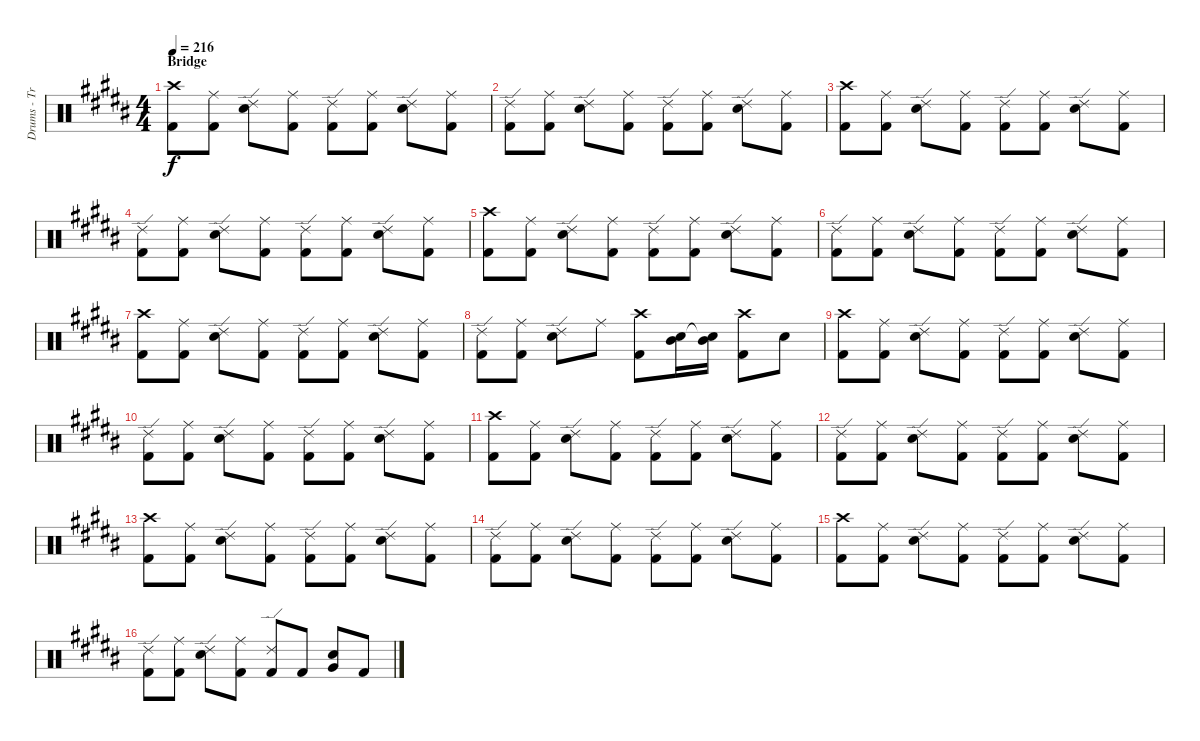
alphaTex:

\track ("Drums - Travis Barker" "Drums - Tr") {instrument percussion}
\staff {score}
\articulation defaults
\ts (4 4)
\section ("" "Bridge")
\tempo 216
\clef neutral
\ks b
("Kick (hit) 2" "Crash high (hit)").8{dy f} ("Kick (hit) 2" "Ride (middle)").8 ("Snare (hit) 2" "Ride (edge) 2").8 ("Kick (hit) 2" "Ride (middle)").8 ("Kick (hit) 2" "Ride (edge) 2").8 ("Kick (hit) 2" "Ride (middle)").8 ("Snare (hit) 2" "Ride (edge) 2").8 ("Kick (hit) 2" "Ride (middle)").8 |
("Kick (hit) 2" "Ride (edge) 2").8 ("Kick (hit) 2" "Ride (middle)").8 ("Snare (hit) 2" "Ride (edge) 2").8 ("Kick (hit) 2" "Ride (middle)").8 ("Kick (hit) 2" "Ride (edge) 2").8 ("Kick (hit) 2" "Ride (middle)").8 ("Snare (hit) 2" "Ride (edge) 2").8 ("Kick (hit) 2" "Ride (middle)").8 |
("Kick (hit) 2" "Crash high (hit)").8 ("Kick (hit) 2" "Ride (middle)").8 ("Snare (hit) 2" "Ride (edge) 2").8 ("Kick (hit) 2" "Ride (middle)").8 ("Kick (hit) 2" "Ride (edge) 2").8 ("Kick (hit) 2" "Ride (middle)").8 ("Snare (hit) 2" "Ride (edge) 2").8 ("Kick (hit) 2" "Ride (middle)").8 |
("Kick (hit) 2" "Ride (edge) 2").8 ("Kick (hit) 2" "Ride (middle)").8 ("Snare (hit) 2" "Ride (edge) 2").8 ("Kick (hit) 2" "Ride (middle)").8 ("Kick (hit) 2" "Ride (edge) 2").8 ("Kick (hit) 2" "Ride (middle)").8 ("Snare (hit) 2" "Ride (edge) 2").8 ("Kick (hit) 2" "Ride (middle)").8 |
("Kick (hit) 2" "Crash high (hit)").8 ("Kick (hit) 2" "Ride (middle)").8 ("Snare (hit) 2" "Ride (edge) 2").8 ("Kick (hit) 2" "Ride (middle)").8 ("Kick (hit) 2" "Ride (edge) 2").8 ("Kick (hit) 2" "Ride (middle)").8 ("Snare (hit) 2" "Ride (edge) 2").8 ("Kick (hit) 2" "Ride (middle)").8 |
("Kick (hit) 2" "Ride (edge) 2").8 ("Kick (hit) 2" "Ride (middle)").8 ("Snare (hit) 2" "Ride (edge) 2").8 ("Kick (hit) 2" "Ride (middle)").8 ("Kick (hit) 2" "Ride (edge) 2").8 ("Kick (hit) 2" "Ride (middle)").8 ("Snare (hit) 2" "Ride (edge) 2").8 ("Kick (hit) 2" "Ride (middle)").8 |
("Kick (hit) 2" "Crash high (hit)").8 ("Kick (hit) 2" "Ride (middle)").8 ("Snare (hit) 2" "Ride (edge) 2").8 ("Kick (hit) 2" "Ride (middle)").8 ("Kick (hit) 2" "Ride (edge) 2").8 ("Kick (hit) 2" "Ride (middle)").8 ("Snare (hit) 2" "Ride (edge) 2").8 ("Kick (hit) 2" "Ride (middle)").8 |
("Kick (hit) 2" "Ride (edge) 2").8 ("Kick (hit) 2" "Ride (middle)").8 ("Snare (hit) 2" "Ride (edge) 2").8 "Ride (middle)".8 ("Kick (hit) 2" "Crash high (hit)").8 ("Snare (hit) 2" "Mid Tom (hit)").16 ("Snare (hit) 2"{t} "Mid Tom (hit)").16 ("Kick (hit) 2" "Crash high (hit)").8 "Snare (hit) 2".8 |
("Kick (hit) 2" "Crash high (hit)").8 ("Kick (hit) 2" "Ride (middle)").8 ("Snare (hit) 2" "Ride (edge) 2").8 ("Kick (hit) 2" "Ride (middle)").8 ("Kick (hit) 2" "Ride (edge) 2").8 ("Kick (hit) 2" "Ride (middle)").8 ("Snare (hit) 2" "Ride (edge) 2").8 ("Kick (hit) 2" "Ride (middle)").8 |
("Kick (hit) 2" "Ride (edge) 2").8 ("Kick (hit) 2" "Ride (middle)").8 ("Snare (hit) 2" "Ride (edge) 2").8 ("Kick (hit) 2" "Ride (middle)").8 ("Kick (hit) 2" "Ride (edge) 2").8 ("Kick (hit) 2" "Ride (middle)").8 ("Snare (hit) 2" "Ride (edge) 2").8 ("Kick (hit) 2" "Ride (middle)").8 |
("Kick (hit) 2" "Crash high (hit)").8 ("Kick (hit) 2" "Ride (middle)").8 ("Snare (hit) 2" "Ride (edge) 2").8 ("Kick (hit) 2" "Ride (middle)").8 ("Kick (hit) 2" "Ride (edge) 2").8 ("Kick (hit) 2" "Ride (middle)").8 ("Snare (hit) 2" "Ride (edge) 2").8 ("Kick (hit) 2" "Ride (middle)").8 |
("Kick (hit) 2" "Ride (edge) 2").8 ("Kick (hit) 2" "Ride (middle)").8 ("Snare (hit) 2" "Ride (edge) 2").8 ("Kick (hit) 2" "Ride (middle)").8 ("Kick (hit) 2" "Ride (edge) 2").8 ("Kick (hit) 2" "Ride (middle)").8 ("Snare (hit) 2" "Ride (edge) 2").8 ("Kick (hit) 2" "Ride (middle)").8 |
("Kick (hit) 2" "Crash high (hit)").8 ("Kick (hit) 2" "Ride (middle)").8 ("Snare (hit) 2" "Ride (edge) 2").8 ("Kick (hit) 2" "Ride (middle)").8 ("Kick (hit) 2" "Ride (edge) 2").8 ("Kick (hit) 2" "Ride (middle)").8 ("Snare (hit) 2" "Ride (edge) 2").8 ("Kick (hit) 2" "Ride (middle)").8 |
("Kick (hit) 2" "Ride (edge) 2").8 ("Kick (hit) 2" "Ride (middle)").8 ("Snare (hit) 2" "Ride (edge) 2").8 ("Kick (hit) 2" "Ride (middle)").8 ("Kick (hit) 2" "Ride (edge) 2").8 ("Kick (hit) 2" "Ride (middle)").8 ("Snare (hit) 2" "Ride (edge) 2").8 ("Kick (hit) 2" "Ride (middle)").8 |
("Kick (hit) 2" "Crash high (hit)").8 ("Kick (hit) 2" "Ride (middle)").8 ("Snare (hit) 2" "Ride (edge) 2").8 ("Kick (hit) 2" "Ride (middle)").8 ("Kick (hit) 2" "Ride (edge) 2").8 ("Kick (hit) 2" "Ride (middle)").8 ("Snare (hit) 2" "Ride (edge) 2").8 ("Kick (hit) 2" "Ride (middle)").8 |
("Kick (hit) 2" "Ride (edge) 2").8 ("Kick (hit) 2" "Ride (middle)").8 ("Snare (hit) 2" "Ride (edge) 2").8 ("Kick (hit) 2" "Ride (middle)").8 ("Kick (hit) 2" "Ride (edge) 2").8 "Kick (hit) 2".8 ("Snare (hit) 2" "Very Low Tom (hit)").8 "Kick (hit) 2".8
